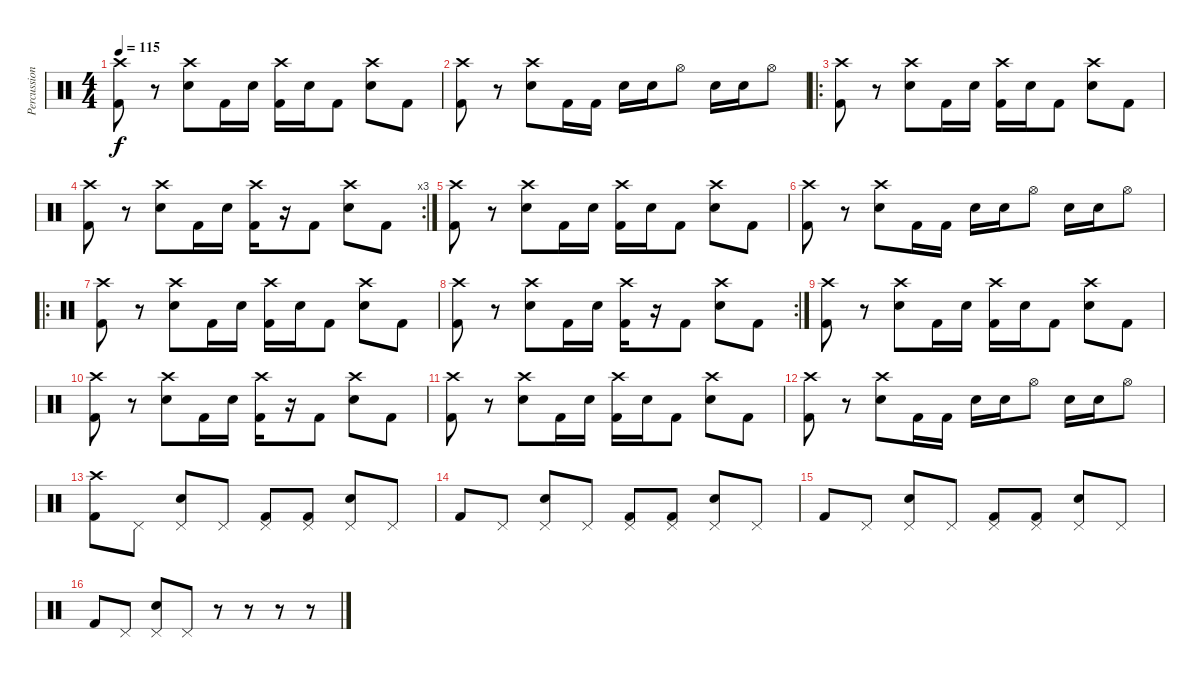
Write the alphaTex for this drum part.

\track ("Percussions" "Percussion") {instrument percussion}
\staff {score}
\articulation defaults
\ts (4 4)
\tempo 115
\clef neutral
\ks c
("Crash high (hit)" "Kick (hit) 2").8{dy f} r.8 ("Crash high (hit)" "Snare (hit) 2").8 "Kick (hit) 2".16 "Snare (hit) 2".16 ("Crash high (hit)" "Kick (hit) 2").16 "Snare (hit) 2".16 "Kick (hit) 2".8 ("Crash high (hit)" "Snare (hit) 2").8 "Kick (hit) 2".8 |
("Crash high (hit)" "Kick (hit) 2").8 r.8 ("Crash high (hit)" "Snare (hit) 2").8 "Kick (hit) 2".16 "Kick (hit) 2".16 "Snare (hit) 2".16 "Snare (hit) 2".16 "Hi-Hat (open)".8 "Snare (hit) 2".16 "Snare (hit) 2".16 "Hi-Hat (open)".8 |
\ro
("Crash high (hit)" "Kick (hit) 2").8 r.8 ("Crash high (hit)" "Snare (hit) 2").8 "Kick (hit) 2".16 "Snare (hit) 2".16 ("Crash high (hit)" "Kick (hit) 2").16 "Snare (hit) 2".16 "Kick (hit) 2".8 ("Crash high (hit)" "Snare (hit) 2").8 "Kick (hit) 2".8 |
\rc 3
("Crash high (hit)" "Kick (hit) 2").8 r.8 ("Crash high (hit)" "Snare (hit) 2").8 "Kick (hit) 2".16 "Snare (hit) 2".16 ("Crash high (hit)" "Kick (hit) 2").16 r.16 "Kick (hit) 2".8 ("Crash high (hit)" "Snare (hit) 2").8 "Kick (hit) 2".8 |
("Crash high (hit)" "Kick (hit) 2").8 r.8 ("Crash high (hit)" "Snare (hit) 2").8 "Kick (hit) 2".16 "Snare (hit) 2".16 ("Crash high (hit)" "Kick (hit) 2").16 "Snare (hit) 2".16 "Kick (hit) 2".8 ("Crash high (hit)" "Snare (hit) 2").8 "Kick (hit) 2".8 |
("Crash high (hit)" "Kick (hit) 2").8 r.8 ("Crash high (hit)" "Snare (hit) 2").8 "Kick (hit) 2".16 "Kick (hit) 2".16 "Snare (hit) 2".16 "Snare (hit) 2".16 "Hi-Hat (open)".8 "Snare (hit) 2".16 "Snare (hit) 2".16 "Hi-Hat (open)".8 |
\ro
("Crash high (hit)" "Kick (hit) 2").8 r.8 ("Crash high (hit)" "Snare (hit) 2").8 "Kick (hit) 2".16 "Snare (hit) 2".16 ("Crash high (hit)" "Kick (hit) 2").16 "Snare (hit) 2".16 "Kick (hit) 2".8 ("Crash high (hit)" "Snare (hit) 2").8 "Kick (hit) 2".8 |
\rc 2
("Crash high (hit)" "Kick (hit) 2").8 r.8 ("Crash high (hit)" "Snare (hit) 2").8 "Kick (hit) 2".16 "Snare (hit) 2".16 ("Crash high (hit)" "Kick (hit) 2").16 r.16 "Kick (hit) 2".8 ("Crash high (hit)" "Snare (hit) 2").8 "Kick (hit) 2".8 |
("Crash high (hit)" "Kick (hit) 2").8 r.8 ("Crash high (hit)" "Snare (hit) 2").8 "Kick (hit) 2".16 "Snare (hit) 2".16 ("Crash high (hit)" "Kick (hit) 2").16 "Snare (hit) 2".16 "Kick (hit) 2".8 ("Crash high (hit)" "Snare (hit) 2").8 "Kick (hit) 2".8 |
("Crash high (hit)" "Kick (hit) 2").8 r.8 ("Crash high (hit)" "Snare (hit) 2").8 "Kick (hit) 2".16 "Snare (hit) 2".16 ("Crash high (hit)" "Kick (hit) 2").16 r.16 "Kick (hit) 2".8 ("Crash high (hit)" "Snare (hit) 2").8 "Kick (hit) 2".8 |
("Crash high (hit)" "Kick (hit) 2").8 r.8 ("Crash high (hit)" "Snare (hit) 2").8 "Kick (hit) 2".16 "Snare (hit) 2".16 ("Crash high (hit)" "Kick (hit) 2").16 "Snare (hit) 2".16 "Kick (hit) 2".8 ("Crash high (hit)" "Snare (hit) 2").8 "Kick (hit) 2".8 |
("Crash high (hit)" "Kick (hit) 2").8 r.8 ("Crash high (hit)" "Snare (hit) 2").8 "Kick (hit) 2".16 "Kick (hit) 2".16 "Snare (hit) 2".16 "Snare (hit) 2".16 "Hi-Hat (open)".8 "Snare (hit) 2".16 "Snare (hit) 2".16 "Hi-Hat (open)".8 |
("Crash high (hit)" "Kick (hit) 2").8 "Pedal Hi-Hat (hit)".8 ("Snare (hit) 2" "Pedal Hi-Hat (hit)").8 "Pedal Hi-Hat (hit)".8 ("Pedal Hi-Hat (hit)" "Kick (hit) 2").8 ("Pedal Hi-Hat (hit)" "Kick (hit) 2").8 ("Pedal Hi-Hat (hit)" "Snare (hit) 2").8 "Pedal Hi-Hat (hit)".8 |
"Kick (hit) 2".8 "Pedal Hi-Hat (hit)".8 ("Snare (hit) 2" "Pedal Hi-Hat (hit)").8 "Pedal Hi-Hat (hit)".8 ("Pedal Hi-Hat (hit)" "Kick (hit) 2").8 ("Pedal Hi-Hat (hit)" "Kick (hit) 2").8 ("Pedal Hi-Hat (hit)" "Snare (hit) 2").8 "Pedal Hi-Hat (hit)".8 |
"Kick (hit) 2".8 "Pedal Hi-Hat (hit)".8 ("Snare (hit) 2" "Pedal Hi-Hat (hit)").8 "Pedal Hi-Hat (hit)".8 ("Pedal Hi-Hat (hit)" "Kick (hit) 2").8 ("Pedal Hi-Hat (hit)" "Kick (hit) 2").8 ("Pedal Hi-Hat (hit)" "Snare (hit) 2").8 "Pedal Hi-Hat (hit)".8 |
"Kick (hit) 2".8 "Pedal Hi-Hat (hit)".8 ("Snare (hit) 2" "Pedal Hi-Hat (hit)").8 "Pedal Hi-Hat (hit)".8 r.8 r.8 r.8 r.8
